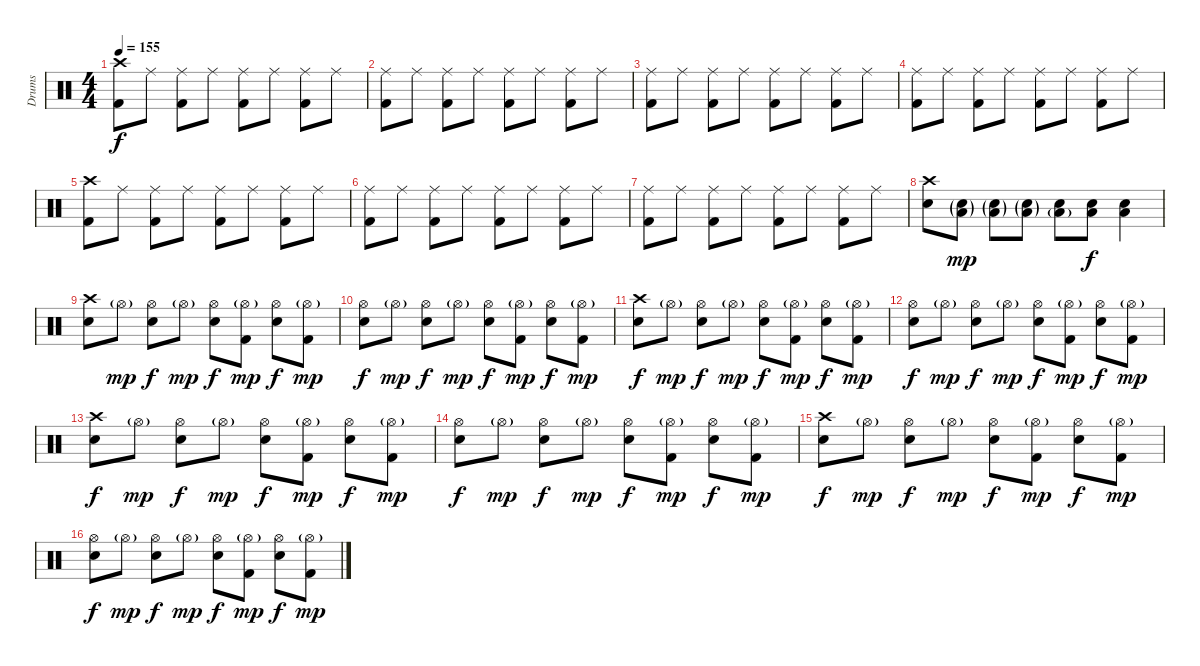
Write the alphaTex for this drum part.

\track ("Drums" "Drums") {instrument percussion}
\staff {score}
\articulation defaults
\ts (4 4)
\tempo 155
\clef neutral
\ks c
("Crash high (hit)" "Kick (hit) 2").8{dy f} "Ride (middle)".8 ("Ride (middle)" "Kick (hit) 2").8 "Ride (middle)".8 ("Ride (middle)" "Kick (hit) 2").8 "Ride (middle)".8 ("Ride (middle)" "Kick (hit) 2").8 "Ride (middle)".8 |
("Ride (middle)" "Kick (hit) 2").8 "Ride (middle)".8 ("Ride (middle)" "Kick (hit) 2").8 "Ride (middle)".8 ("Ride (middle)" "Kick (hit) 2").8 "Ride (middle)".8 ("Ride (middle)" "Kick (hit) 2").8 "Ride (middle)".8 |
("Ride (middle)" "Kick (hit) 2").8 "Ride (middle)".8 ("Ride (middle)" "Kick (hit) 2").8 "Ride (middle)".8 ("Ride (middle)" "Kick (hit) 2").8 "Ride (middle)".8 ("Ride (middle)" "Kick (hit) 2").8 "Ride (middle)".8 |
("Ride (middle)" "Kick (hit) 2").8 "Ride (middle)".8 ("Ride (middle)" "Kick (hit) 2").8 "Ride (middle)".8 ("Ride (middle)" "Kick (hit) 2").8 "Ride (middle)".8 ("Ride (middle)" "Kick (hit) 2").8 "Ride (middle)".8 |
("Crash high (hit)" "Kick (hit) 2").8 "Ride (middle)".8 ("Ride (middle)" "Kick (hit) 2").8 "Ride (middle)".8 ("Ride (middle)" "Kick (hit) 2").8 "Ride (middle)".8 ("Ride (middle)" "Kick (hit) 2").8 "Ride (middle)".8 |
("Ride (middle)" "Kick (hit) 2").8 "Ride (middle)".8 ("Ride (middle)" "Kick (hit) 2").8 "Ride (middle)".8 ("Ride (middle)" "Kick (hit) 2").8 "Ride (middle)".8 ("Ride (middle)" "Kick (hit) 2").8 "Ride (middle)".8 |
("Ride (middle)" "Kick (hit) 2").8 "Ride (middle)".8 ("Ride (middle)" "Kick (hit) 2").8 "Ride (middle)".8 ("Ride (middle)" "Kick (hit) 2").8 "Ride (middle)".8 ("Ride (middle)" "Kick (hit) 2").8 "Ride (middle)".8 |
("Crash high (hit)" "Electric Snare (hit)").8 ("Low Floor Tom (hit)"{g} "Electric Snare (hit)"{g}).8{dy mp} ("Low Floor Tom (hit)"{g} "Electric Snare (hit)"{g}).8 ("Low Floor Tom (hit)"{g} "Electric Snare (hit)"{g}).8 ("Low Floor Tom (hit)"{g} "Electric Snare (hit)").8 ("Low Floor Tom (hit)" "Electric Snare (hit)").8{dy f} ("Low Floor Tom (hit)" "Electric Snare (hit)").4 |
("Crash high (hit)" "Electric Snare (hit)").8 "Hi-Hat (open)"{g}.8{dy mp} ("Hi-Hat (open)" "Electric Snare (hit)").8{dy f} "Hi-Hat (open)"{g}.8{dy mp} ("Hi-Hat (open)" "Electric Snare (hit)").8{dy f} ("Hi-Hat (open)"{g} "Kick (hit) 2").8{dy mp} ("Hi-Hat (open)" "Electric Snare (hit)").8{dy f} ("Hi-Hat (open)"{g} "Kick (hit) 2").8{dy mp} |
("Hi-Hat (open)" "Electric Snare (hit)").8{dy f} "Hi-Hat (open)"{g}.8{dy mp} ("Hi-Hat (open)" "Electric Snare (hit)").8{dy f} "Hi-Hat (open)"{g}.8{dy mp} ("Hi-Hat (open)" "Electric Snare (hit)").8{dy f} ("Hi-Hat (open)"{g} "Kick (hit) 2").8{dy mp} ("Hi-Hat (open)" "Electric Snare (hit)").8{dy f} ("Hi-Hat (open)"{g} "Kick (hit) 2").8{dy mp} |
("Crash high (hit)" "Electric Snare (hit)").8{dy f} "Hi-Hat (open)"{g}.8{dy mp} ("Hi-Hat (open)" "Electric Snare (hit)").8{dy f} "Hi-Hat (open)"{g}.8{dy mp} ("Hi-Hat (open)" "Electric Snare (hit)").8{dy f} ("Hi-Hat (open)"{g} "Kick (hit) 2").8{dy mp} ("Hi-Hat (open)" "Electric Snare (hit)").8{dy f} ("Hi-Hat (open)"{g} "Kick (hit) 2").8{dy mp} |
("Hi-Hat (open)" "Electric Snare (hit)").8{dy f} "Hi-Hat (open)"{g}.8{dy mp} ("Hi-Hat (open)" "Electric Snare (hit)").8{dy f} "Hi-Hat (open)"{g}.8{dy mp} ("Hi-Hat (open)" "Electric Snare (hit)").8{dy f} ("Hi-Hat (open)"{g} "Kick (hit) 2").8{dy mp} ("Hi-Hat (open)" "Electric Snare (hit)").8{dy f} ("Hi-Hat (open)"{g} "Kick (hit) 2").8{dy mp} |
("Crash high (hit)" "Electric Snare (hit)").8{dy f} "Hi-Hat (open)"{g}.8{dy mp} ("Hi-Hat (open)" "Electric Snare (hit)").8{dy f} "Hi-Hat (open)"{g}.8{dy mp} ("Hi-Hat (open)" "Electric Snare (hit)").8{dy f} ("Hi-Hat (open)"{g} "Kick (hit) 2").8{dy mp} ("Hi-Hat (open)" "Electric Snare (hit)").8{dy f} ("Hi-Hat (open)"{g} "Kick (hit) 2").8{dy mp} |
("Hi-Hat (open)" "Electric Snare (hit)").8{dy f} "Hi-Hat (open)"{g}.8{dy mp} ("Hi-Hat (open)" "Electric Snare (hit)").8{dy f} "Hi-Hat (open)"{g}.8{dy mp} ("Hi-Hat (open)" "Electric Snare (hit)").8{dy f} ("Hi-Hat (open)"{g} "Kick (hit) 2").8{dy mp} ("Hi-Hat (open)" "Electric Snare (hit)").8{dy f} ("Hi-Hat (open)"{g} "Kick (hit) 2").8{dy mp} |
("Crash high (hit)" "Electric Snare (hit)").8{dy f} "Hi-Hat (open)"{g}.8{dy mp} ("Hi-Hat (open)" "Electric Snare (hit)").8{dy f} "Hi-Hat (open)"{g}.8{dy mp} ("Hi-Hat (open)" "Electric Snare (hit)").8{dy f} ("Hi-Hat (open)"{g} "Kick (hit) 2").8{dy mp} ("Hi-Hat (open)" "Electric Snare (hit)").8{dy f} ("Hi-Hat (open)"{g} "Kick (hit) 2").8{dy mp} |
("Hi-Hat (open)" "Electric Snare (hit)").8{dy f} "Hi-Hat (open)"{g}.8{dy mp} ("Hi-Hat (open)" "Electric Snare (hit)").8{dy f} "Hi-Hat (open)"{g}.8{dy mp} ("Hi-Hat (open)" "Electric Snare (hit)").8{dy f} ("Hi-Hat (open)"{g} "Kick (hit) 2").8{dy mp} ("Hi-Hat (open)" "Electric Snare (hit)").8{dy f} ("Hi-Hat (open)"{g} "Kick (hit) 2").8{dy mp}
